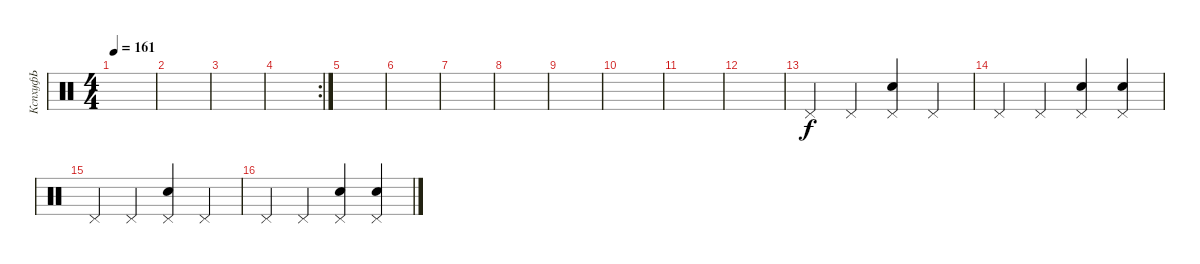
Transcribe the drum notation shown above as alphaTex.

\track ("КспхуфЬ" "КспхуфЬ") {instrument percussion}
\staff {score}
\articulation defaults
\ts (4 4)
\tempo 161
\clef neutral
\ks c
|
|
|
\rc 2
|
|
|
|
|
|
|
|
|
"Pedal Hi-Hat (hit)".4 "Pedal Hi-Hat (hit)".4 ("Snare (hit) 2" "Pedal Hi-Hat (hit)").4 "Pedal Hi-Hat (hit)".4 |
"Pedal Hi-Hat (hit)".4 "Pedal Hi-Hat (hit)".4 ("Snare (hit) 2" "Pedal Hi-Hat (hit)").4 ("Snare (hit) 2" "Pedal Hi-Hat (hit)").4 |
"Pedal Hi-Hat (hit)".4 "Pedal Hi-Hat (hit)".4 ("Snare (hit) 2" "Pedal Hi-Hat (hit)").4 "Pedal Hi-Hat (hit)".4 |
"Pedal Hi-Hat (hit)".4 "Pedal Hi-Hat (hit)".4 ("Snare (hit) 2" "Pedal Hi-Hat (hit)").4 ("Snare (hit) 2" "Pedal Hi-Hat (hit)").4
